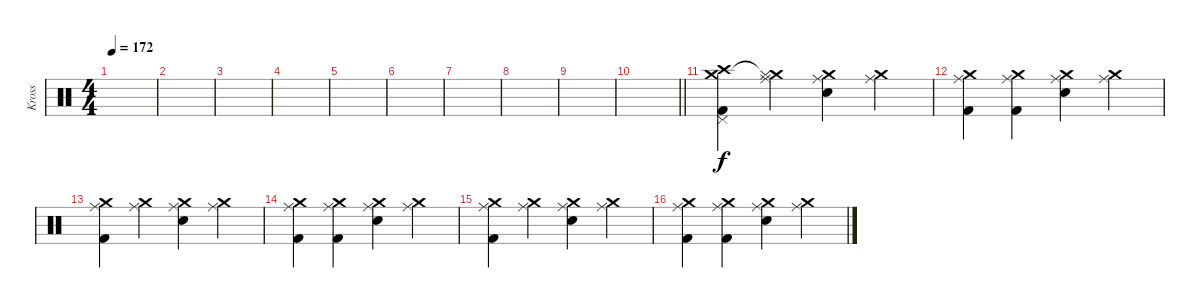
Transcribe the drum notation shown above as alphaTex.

\track ("Kross" "Kross") {instrument percussion}
\staff {score}
\articulation defaults
\ts (4 4)
\tempo 172
\clef neutral
\ks c
|
|
|
|
|
|
|
|
|
\barLineRight lightlight
|
\section ("" "")
("Crash high (hit)" "Crash medium (hit)" "Pedal Hi-Hat (hit)" "Kick (hit) 2").4 ("Crash medium (hit)" "Hi-Hat (closed)"{t} "Ride (middle)").4 ("Crash medium (hit)" "Ride (middle)" "Snare (hit) 2").4 ("Crash medium (hit)" "Ride (middle)").4 |
("Crash medium (hit)" "Ride (middle)" "Kick (hit) 2").4 ("Crash medium (hit)" "Ride (middle)" "Kick (hit) 2").4 ("Crash medium (hit)" "Ride (middle)" "Snare (hit) 2").4 ("Crash medium (hit)" "Ride (middle)").4 |
("Crash medium (hit)" "Ride (middle)" "Kick (hit) 2").4 ("Crash medium (hit)" "Ride (middle)").4 ("Crash medium (hit)" "Ride (middle)" "Snare (hit) 2").4 ("Crash medium (hit)" "Ride (middle)").4 |
("Crash medium (hit)" "Ride (middle)" "Kick (hit) 2").4 ("Crash medium (hit)" "Ride (middle)" "Kick (hit) 2").4 ("Crash medium (hit)" "Ride (middle)" "Snare (hit) 2").4 ("Crash medium (hit)" "Ride (middle)").4 |
("Crash medium (hit)" "Ride (middle)" "Kick (hit) 2").4 ("Crash medium (hit)" "Ride (middle)").4 ("Crash medium (hit)" "Ride (middle)" "Snare (hit) 2").4 ("Crash medium (hit)" "Ride (middle)").4 |
("Crash medium (hit)" "Ride (middle)" "Kick (hit) 2").4 ("Crash medium (hit)" "Ride (middle)" "Kick (hit) 2").4 ("Crash medium (hit)" "Ride (middle)" "Snare (hit) 2").4 ("Crash medium (hit)" "Ride (middle)").4
